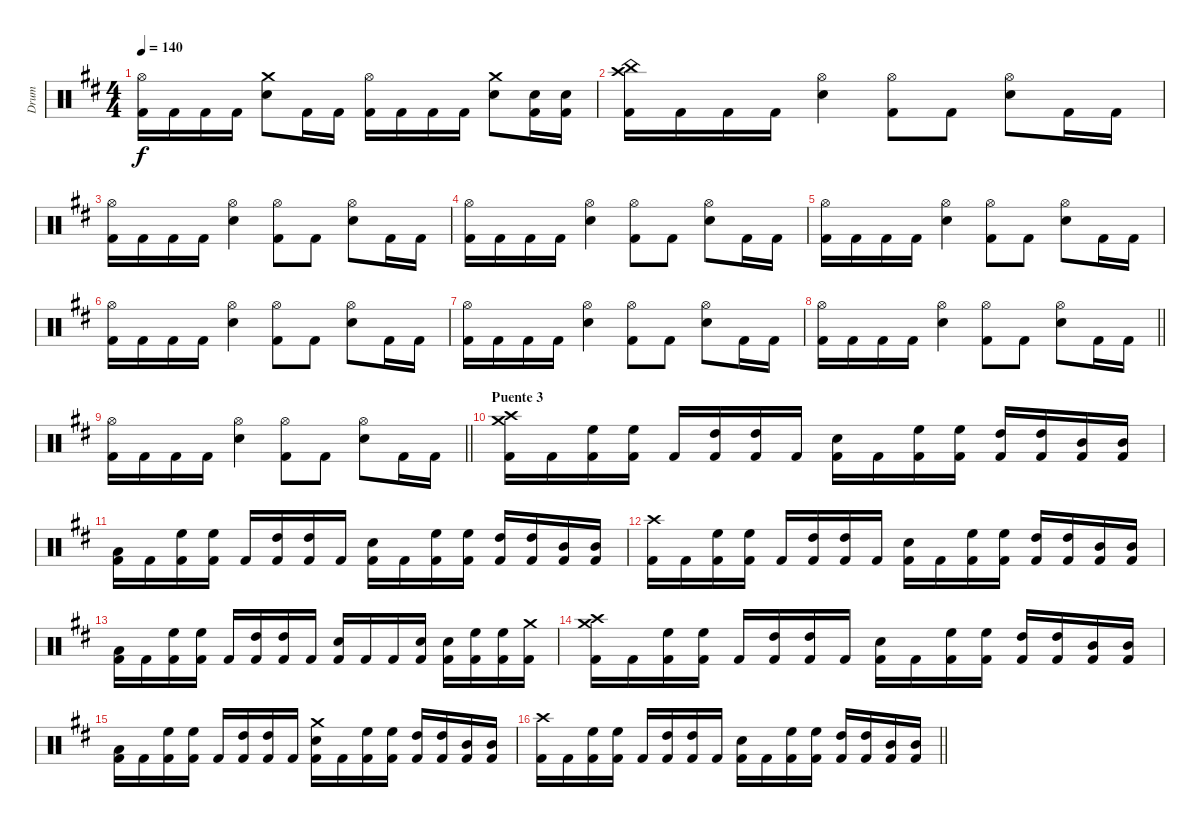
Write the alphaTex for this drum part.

\track ("Drum" "Drum") {instrument percussion}
\staff {score}
\articulation defaults
\ts (4 4)
\tempo 140
\clef neutral
\ks bminor
("Hi-Hat (open)" "Kick (hit) 2").16{dy f} "Kick (hit) 2".16 "Kick (hit) 2".16 "Kick (hit) 2".16 ("Crash medium (hit)" "Snare (hit) 2").8 "Kick (hit) 2".16 "Kick (hit) 2".16 ("Hi-Hat (open)" "Kick (hit) 2").16 "Kick (hit) 2".16 "Kick (hit) 2".16 "Kick (hit) 2".16 ("Crash medium (hit)" "Snare (hit) 2").8 ("Snare (hit) 2" "Kick (hit) 2").16 ("Snare (hit) 2" "Kick (hit) 2").16 |
("Crash high (hit)" "China (hit)" "Kick (hit) 2").16 "Kick (hit) 2".16 "Kick (hit) 2".16 "Kick (hit) 2".16 ("Hi-Hat (open)" "Snare (hit) 2").4 ("Hi-Hat (open)" "Kick (hit) 2").8 "Kick (hit) 2".8 ("Hi-Hat (open)" "Snare (hit) 2").8 "Kick (hit) 2".16 "Kick (hit) 2".16 |
("Hi-Hat (open)" "Kick (hit) 2").16 "Kick (hit) 2".16 "Kick (hit) 2".16 "Kick (hit) 2".16 ("Hi-Hat (open)" "Snare (hit) 2").4 ("Hi-Hat (open)" "Kick (hit) 2").8 "Kick (hit) 2".8 ("Hi-Hat (open)" "Snare (hit) 2").8 "Kick (hit) 2".16 "Kick (hit) 2".16 |
("Hi-Hat (open)" "Kick (hit) 2").16 "Kick (hit) 2".16 "Kick (hit) 2".16 "Kick (hit) 2".16 ("Hi-Hat (open)" "Snare (hit) 2").4 ("Hi-Hat (open)" "Kick (hit) 2").8 "Kick (hit) 2".8 ("Hi-Hat (open)" "Snare (hit) 2").8 "Kick (hit) 2".16 "Kick (hit) 2".16 |
("Hi-Hat (open)" "Kick (hit) 2").16 "Kick (hit) 2".16 "Kick (hit) 2".16 "Kick (hit) 2".16 ("Hi-Hat (open)" "Snare (hit) 2").4 ("Hi-Hat (open)" "Kick (hit) 2").8 "Kick (hit) 2".8 ("Hi-Hat (open)" "Snare (hit) 2").8 "Kick (hit) 2".16 "Kick (hit) 2".16 |
("Hi-Hat (open)" "Kick (hit) 2").16 "Kick (hit) 2".16 "Kick (hit) 2".16 "Kick (hit) 2".16 ("Hi-Hat (open)" "Snare (hit) 2").4 ("Hi-Hat (open)" "Kick (hit) 2").8 "Kick (hit) 2".8 ("Hi-Hat (open)" "Snare (hit) 2").8 "Kick (hit) 2".16 "Kick (hit) 2".16 |
("Hi-Hat (open)" "Kick (hit) 2").16 "Kick (hit) 2".16 "Kick (hit) 2".16 "Kick (hit) 2".16 ("Hi-Hat (open)" "Snare (hit) 2").4 ("Hi-Hat (open)" "Kick (hit) 2").8 "Kick (hit) 2".8 ("Hi-Hat (open)" "Snare (hit) 2").8 "Kick (hit) 2".16 "Kick (hit) 2".16 |
\barLineRight lightlight
("Hi-Hat (open)" "Kick (hit) 2").16 "Kick (hit) 2".16 "Kick (hit) 2".16 "Kick (hit) 2".16 ("Hi-Hat (open)" "Snare (hit) 2").4 ("Hi-Hat (open)" "Kick (hit) 2").8 "Kick (hit) 2".8 ("Hi-Hat (open)" "Snare (hit) 2").8 "Kick (hit) 2".16 "Kick (hit) 2".16 |
\barLineRight lightlight
("Hi-Hat (open)" "Kick (hit) 2").16 "Kick (hit) 2".16 "Kick (hit) 2".16 "Kick (hit) 2".16 ("Hi-Hat (open)" "Snare (hit) 2").4 ("Hi-Hat (open)" "Kick (hit) 2").8 "Kick (hit) 2".8 ("Hi-Hat (open)" "Snare (hit) 2").8 "Kick (hit) 2".16 "Kick (hit) 2".16 |
\section ("" "Puente 3")
("Crash medium (hit)" "Crash high (hit)" "Kick (hit) 2").16 "Kick (hit) 2".16 ("High Floor Tom (hit)" "Kick (hit) 2").16 ("High Floor Tom (hit)" "Kick (hit) 2").16 "Kick (hit) 2".16 ("High Tom (hit)" "Kick (hit) 2").16 ("High Tom (hit)" "Kick (hit) 2").16 "Kick (hit) 2".16 ("Snare (hit) 2" "Kick (hit) 2").16 "Kick (hit) 2".16 ("High Floor Tom (hit)" "Kick (hit) 2").16 ("High Floor Tom (hit)" "Kick (hit) 2").16 ("High Tom (hit)" "Kick (hit) 2").16 ("High Tom (hit)" "Kick (hit) 2").16 ("Mid Tom (hit)" "Kick (hit) 2").16 ("Mid Tom (hit)" "Kick (hit) 2").16 |
("Low Tom (hit)" "Kick (hit) 2").16 "Kick (hit) 2".16 ("High Floor Tom (hit)" "Kick (hit) 2").16 ("High Floor Tom (hit)" "Kick (hit) 2").16 "Kick (hit) 2".16 ("High Tom (hit)" "Kick (hit) 2").16 ("High Tom (hit)" "Kick (hit) 2").16 "Kick (hit) 2".16 ("Snare (hit) 2" "Kick (hit) 2").16 "Kick (hit) 2".16 ("High Floor Tom (hit)" "Kick (hit) 2").16 ("High Floor Tom (hit)" "Kick (hit) 2").16 ("High Tom (hit)" "Kick (hit) 2").16 ("High Tom (hit)" "Kick (hit) 2").16 ("Mid Tom (hit)" "Kick (hit) 2").16 ("Mid Tom (hit)" "Kick (hit) 2").16 |
("Crash high (hit)" "Kick (hit) 2").16 "Kick (hit) 2".16 ("High Floor Tom (hit)" "Kick (hit) 2").16 ("High Floor Tom (hit)" "Kick (hit) 2").16 "Kick (hit) 2".16 ("High Tom (hit)" "Kick (hit) 2").16 ("High Tom (hit)" "Kick (hit) 2").16 "Kick (hit) 2".16 ("Snare (hit) 2" "Kick (hit) 2").16 "Kick (hit) 2".16 ("High Floor Tom (hit)" "Kick (hit) 2").16 ("High Floor Tom (hit)" "Kick (hit) 2").16 ("High Tom (hit)" "Kick (hit) 2").16 ("High Tom (hit)" "Kick (hit) 2").16 ("Mid Tom (hit)" "Kick (hit) 2").16 ("Mid Tom (hit)" "Kick (hit) 2").16 |
("Low Tom (hit)" "Kick (hit) 2").16 "Kick (hit) 2".16 ("High Floor Tom (hit)" "Kick (hit) 2").16 ("High Floor Tom (hit)" "Kick (hit) 2").16 "Kick (hit) 2".16 ("High Tom (hit)" "Kick (hit) 2").16 ("High Tom (hit)" "Kick (hit) 2").16 "Kick (hit) 2".16 ("Snare (hit) 2" "Kick (hit) 2").16 "Kick (hit) 2".16 "Kick (hit) 2".16 ("Snare (hit) 2" "Kick (hit) 2").16 ("Snare (hit) 2" "Kick (hit) 2").16 ("High Floor Tom (hit)" "Kick (hit) 2").16 ("High Floor Tom (hit)" "Kick (hit) 2").16 ("Crash medium (hit)" "Kick (hit) 2").16 |
("Crash medium (hit)" "Crash high (hit)" "Kick (hit) 2").16 "Kick (hit) 2".16 ("High Floor Tom (hit)" "Kick (hit) 2").16 ("High Floor Tom (hit)" "Kick (hit) 2").16 "Kick (hit) 2".16 ("High Tom (hit)" "Kick (hit) 2").16 ("High Tom (hit)" "Kick (hit) 2").16 "Kick (hit) 2".16 ("Snare (hit) 2" "Kick (hit) 2").16 "Kick (hit) 2".16 ("High Floor Tom (hit)" "Kick (hit) 2").16 ("High Floor Tom (hit)" "Kick (hit) 2").16 ("High Tom (hit)" "Kick (hit) 2").16 ("High Tom (hit)" "Kick (hit) 2").16 ("Mid Tom (hit)" "Kick (hit) 2").16 ("Mid Tom (hit)" "Kick (hit) 2").16 |
("Low Tom (hit)" "Kick (hit) 2").16 "Kick (hit) 2".16 ("High Floor Tom (hit)" "Kick (hit) 2").16 ("High Floor Tom (hit)" "Kick (hit) 2").16 "Kick (hit) 2".16 ("High Tom (hit)" "Kick (hit) 2").16 ("High Tom (hit)" "Kick (hit) 2").16 "Kick (hit) 2".16 ("Crash medium (hit)" "Snare (hit) 2" "Kick (hit) 2").16 "Kick (hit) 2".16 ("High Floor Tom (hit)" "Kick (hit) 2").16 ("High Floor Tom (hit)" "Kick (hit) 2").16 ("High Tom (hit)" "Kick (hit) 2").16 ("High Tom (hit)" "Kick (hit) 2").16 ("Mid Tom (hit)" "Kick (hit) 2").16 ("Mid Tom (hit)" "Kick (hit) 2").16 |
\barLineRight lightlight
("Crash high (hit)" "Kick (hit) 2").16 "Kick (hit) 2".16 ("High Floor Tom (hit)" "Kick (hit) 2").16 ("High Floor Tom (hit)" "Kick (hit) 2").16 "Kick (hit) 2".16 ("High Tom (hit)" "Kick (hit) 2").16 ("High Tom (hit)" "Kick (hit) 2").16 "Kick (hit) 2".16 ("Snare (hit) 2" "Kick (hit) 2").16 "Kick (hit) 2".16 ("High Floor Tom (hit)" "Kick (hit) 2").16 ("High Floor Tom (hit)" "Kick (hit) 2").16 ("High Tom (hit)" "Kick (hit) 2").16 ("High Tom (hit)" "Kick (hit) 2").16 ("Mid Tom (hit)" "Kick (hit) 2").16 ("Mid Tom (hit)" "Kick (hit) 2").16
